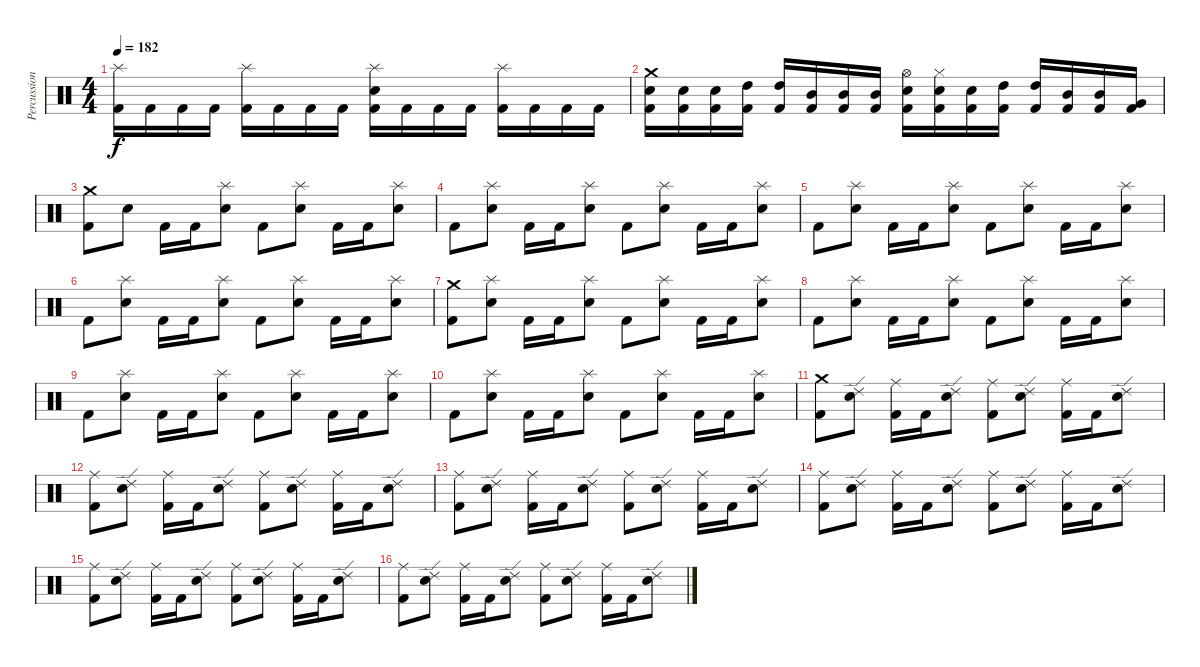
\track ("Percussion" "Percussion") {instrument percussion}
\staff {score}
\articulation defaults
\ts (4 4)
\tempo 182
\clef neutral
\ks c
("Splash (hit)" "Kick (hit) 2").16{dy f} "Kick (hit) 2".16 "Kick (hit) 2".16 "Kick (hit) 2".16 ("Splash (hit)" "Kick (hit) 2").16 "Kick (hit) 2".16 "Kick (hit) 2".16 "Kick (hit) 2".16 ("Splash (hit)" "Electric Snare (hit)" "Kick (hit) 2").16 "Kick (hit) 2".16 "Kick (hit) 2".16 "Kick (hit) 2".16 ("Splash (hit)" "Kick (hit) 2").16 "Kick (hit) 2".16 "Kick (hit) 2".16 "Kick (hit) 2".16 |
("Crash medium (hit)" "Electric Snare (hit)" "Kick (hit) 2").16 ("Electric Snare (hit)" "Kick (hit) 2").16 ("Electric Snare (hit)" "Kick (hit) 2").16 ("High Tom (hit)" "Kick (hit) 2").16 ("High Tom (hit)" "Kick (hit) 2").16 ("Mid Tom (hit)" "Kick (hit) 2").16 ("Mid Tom (hit)" "Kick (hit) 2").16 ("Mid Tom (hit)" "Kick (hit) 2").16 ("Hi-Hat (open)" "Electric Snare (hit)" "Kick (hit) 2").16 ("Hi-Hat (closed)" "Electric Snare (hit)" "Kick (hit) 2").16 ("Electric Snare (hit)" "Kick (hit) 2").16 ("High Tom (hit)" "Kick (hit) 2").16 ("High Tom (hit)" "Kick (hit) 2").16 ("Mid Tom (hit)" "Kick (hit) 2").16 ("Mid Tom (hit)" "Kick (hit) 2").16 ("Very Low Tom (hit)" "Kick (hit) 2").16 |
("Crash medium (hit)" "Kick (hit) 2").8 "Electric Snare (hit)".8 "Kick (hit) 2".16 "Kick (hit) 2".16 ("Splash (hit)" "Electric Snare (hit)").8 "Kick (hit) 2".8 ("Splash (hit)" "Electric Snare (hit)").8 "Kick (hit) 2".16 "Kick (hit) 2".16 ("Splash (hit)" "Electric Snare (hit)").8 |
"Kick (hit) 2".8 ("Splash (hit)" "Electric Snare (hit)").8 "Kick (hit) 2".16 "Kick (hit) 2".16 ("Splash (hit)" "Electric Snare (hit)").8 "Kick (hit) 2".8 ("Splash (hit)" "Electric Snare (hit)").8 "Kick (hit) 2".16 "Kick (hit) 2".16 ("Splash (hit)" "Electric Snare (hit)").8 |
"Kick (hit) 2".8 ("Splash (hit)" "Electric Snare (hit)").8 "Kick (hit) 2".16 "Kick (hit) 2".16 ("Splash (hit)" "Electric Snare (hit)").8 "Kick (hit) 2".8 ("Splash (hit)" "Electric Snare (hit)").8 "Kick (hit) 2".16 "Kick (hit) 2".16 ("Splash (hit)" "Electric Snare (hit)").8 |
"Kick (hit) 2".8 ("Splash (hit)" "Electric Snare (hit)").8 "Kick (hit) 2".16 "Kick (hit) 2".16 ("Splash (hit)" "Electric Snare (hit)").8 "Kick (hit) 2".8 ("Splash (hit)" "Electric Snare (hit)").8 "Kick (hit) 2".16 "Kick (hit) 2".16 ("Splash (hit)" "Electric Snare (hit)").8 |
("Crash medium (hit)" "Kick (hit) 2").8 ("Splash (hit)" "Electric Snare (hit)").8 "Kick (hit) 2".16 "Kick (hit) 2".16 ("Splash (hit)" "Electric Snare (hit)").8 "Kick (hit) 2".8 ("Splash (hit)" "Electric Snare (hit)").8 "Kick (hit) 2".16 "Kick (hit) 2".16 ("Splash (hit)" "Electric Snare (hit)").8 |
"Kick (hit) 2".8 ("Splash (hit)" "Electric Snare (hit)").8 "Kick (hit) 2".16 "Kick (hit) 2".16 ("Splash (hit)" "Electric Snare (hit)").8 "Kick (hit) 2".8 ("Splash (hit)" "Electric Snare (hit)").8 "Kick (hit) 2".16 "Kick (hit) 2".16 ("Splash (hit)" "Electric Snare (hit)").8 |
"Kick (hit) 2".8 ("Splash (hit)" "Electric Snare (hit)").8 "Kick (hit) 2".16 "Kick (hit) 2".16 ("Splash (hit)" "Electric Snare (hit)").8 "Kick (hit) 2".8 ("Splash (hit)" "Electric Snare (hit)").8 "Kick (hit) 2".16 "Kick (hit) 2".16 ("Splash (hit)" "Electric Snare (hit)").8 |
"Kick (hit) 2".8 ("Splash (hit)" "Electric Snare (hit)").8 "Kick (hit) 2".16 "Kick (hit) 2".16 ("Splash (hit)" "Electric Snare (hit)").8 "Kick (hit) 2".8 ("Splash (hit)" "Electric Snare (hit)").8 "Kick (hit) 2".16 "Kick (hit) 2".16 ("Splash (hit)" "Electric Snare (hit)").8 |
("Crash medium (hit)" "Kick (hit) 2").8 ("Ride (edge) 2" "Electric Snare (hit)").8 ("Ride (middle)" "Kick (hit) 2").16 "Kick (hit) 2".16 ("Ride (edge) 2" "Electric Snare (hit)").8 ("Ride (middle)" "Kick (hit) 2").8 ("Ride (edge) 2" "Electric Snare (hit)").8 ("Ride (middle)" "Kick (hit) 2").16 "Kick (hit) 2".16 ("Ride (edge) 2" "Electric Snare (hit)").8 |
("Ride (middle)" "Kick (hit) 2").8 ("Ride (edge) 2" "Electric Snare (hit)").8 ("Ride (middle)" "Kick (hit) 2").16 "Kick (hit) 2".16 ("Ride (edge) 2" "Electric Snare (hit)").8 ("Ride (middle)" "Kick (hit) 2").8 ("Ride (edge) 2" "Electric Snare (hit)").8 ("Ride (middle)" "Kick (hit) 2").16 "Kick (hit) 2".16 ("Ride (edge) 2" "Electric Snare (hit)").8 |
("Ride (middle)" "Kick (hit) 2").8 ("Ride (edge) 2" "Electric Snare (hit)").8 ("Ride (middle)" "Kick (hit) 2").16 "Kick (hit) 2".16 ("Ride (edge) 2" "Electric Snare (hit)").8 ("Ride (middle)" "Kick (hit) 2").8 ("Ride (edge) 2" "Electric Snare (hit)").8 ("Ride (middle)" "Kick (hit) 2").16 "Kick (hit) 2".16 ("Ride (edge) 2" "Electric Snare (hit)").8 |
("Ride (middle)" "Kick (hit) 2").8 ("Ride (edge) 2" "Electric Snare (hit)").8 ("Ride (middle)" "Kick (hit) 2").16 "Kick (hit) 2".16 ("Ride (edge) 2" "Electric Snare (hit)").8 ("Ride (middle)" "Kick (hit) 2").8 ("Ride (edge) 2" "Electric Snare (hit)").8 ("Ride (middle)" "Kick (hit) 2").16 "Kick (hit) 2".16 ("Ride (edge) 2" "Electric Snare (hit)").8 |
("Ride (middle)" "Kick (hit) 2").8 ("Ride (edge) 2" "Electric Snare (hit)").8 ("Ride (middle)" "Kick (hit) 2").16 "Kick (hit) 2".16 ("Ride (edge) 2" "Electric Snare (hit)").8 ("Ride (middle)" "Kick (hit) 2").8 ("Ride (edge) 2" "Electric Snare (hit)").8 ("Ride (middle)" "Kick (hit) 2").16 "Kick (hit) 2".16 ("Ride (edge) 2" "Electric Snare (hit)").8 |
("Ride (middle)" "Kick (hit) 2").8 ("Ride (edge) 2" "Electric Snare (hit)").8 ("Ride (middle)" "Kick (hit) 2").16 "Kick (hit) 2".16 ("Ride (edge) 2" "Electric Snare (hit)").8 ("Ride (middle)" "Kick (hit) 2").8 ("Ride (edge) 2" "Electric Snare (hit)").8 ("Ride (middle)" "Kick (hit) 2").16 "Kick (hit) 2".16 ("Ride (edge) 2" "Electric Snare (hit)").8
